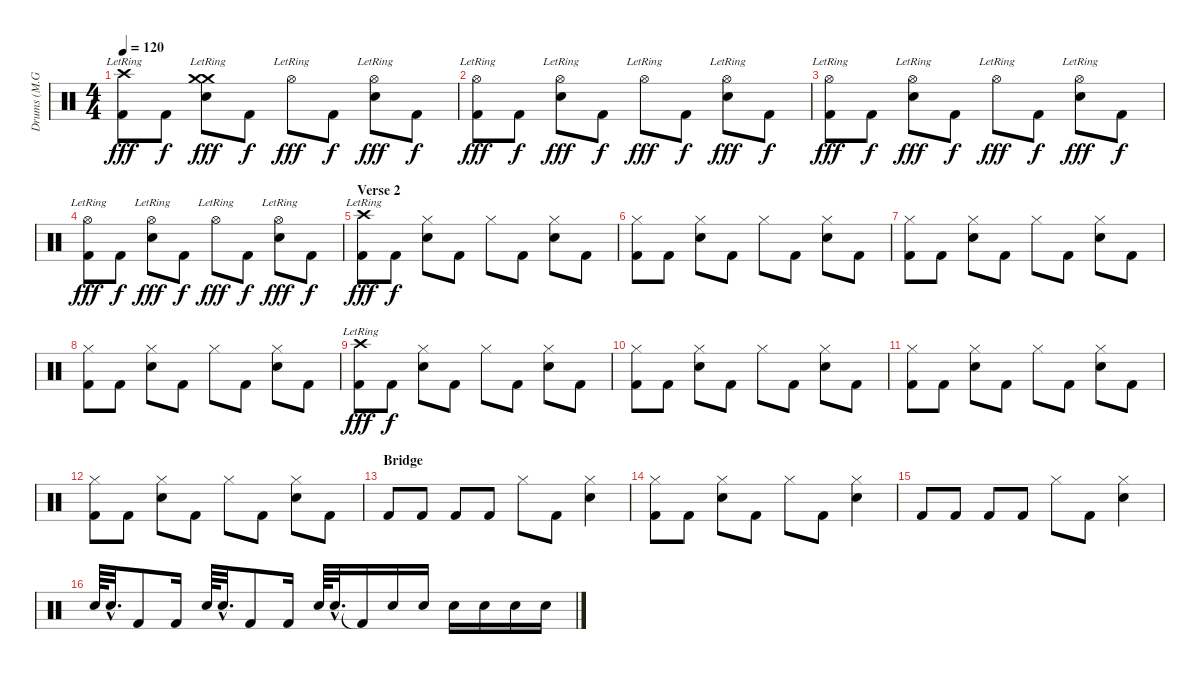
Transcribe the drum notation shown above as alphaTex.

\track ("Drums (M.Grosskopf)" "Drums (M.G") {instrument percussion}
\staff {score}
\articulation defaults
\ts (4 4)
\tempo 120
\clef neutral
\ks c
("Crash high (hit)"{lr} "Kick (hit) 2").8{dy fff} "Kick (hit) 2".8{dy f} ("Crash medium (hit)"{lr} "Crash medium (hit)"{lr} "Electric Snare (hit)").8{dy fff} "Kick (hit) 2".8{dy f} "Hi-Hat (open)"{lr}.8{dy fff} "Kick (hit) 2".8{dy f} ("Hi-Hat (open)"{lr} "Electric Snare (hit)").8{dy fff} "Kick (hit) 2".8{dy f} |
("Hi-Hat (open)"{lr} "Kick (hit) 2").8{dy fff} "Kick (hit) 2".8{dy f} ("Hi-Hat (open)"{lr} "Electric Snare (hit)").8{dy fff} "Kick (hit) 2".8{dy f} "Hi-Hat (open)"{lr}.8{dy fff} "Kick (hit) 2".8{dy f} ("Hi-Hat (open)"{lr} "Electric Snare (hit)").8{dy fff} "Kick (hit) 2".8{dy f} |
("Hi-Hat (open)"{lr} "Kick (hit) 2").8{dy fff} "Kick (hit) 2".8{dy f} ("Hi-Hat (open)"{lr} "Electric Snare (hit)").8{dy fff} "Kick (hit) 2".8{dy f} "Hi-Hat (open)"{lr}.8{dy fff} "Kick (hit) 2".8{dy f} ("Hi-Hat (open)"{lr} "Electric Snare (hit)").8{dy fff} "Kick (hit) 2".8{dy f} |
("Hi-Hat (open)"{lr} "Kick (hit) 2").8{dy fff} "Kick (hit) 2".8{dy f} ("Hi-Hat (open)"{lr} "Electric Snare (hit)").8{dy fff} "Kick (hit) 2".8{dy f} "Hi-Hat (open)"{lr}.8{dy fff} "Kick (hit) 2".8{dy f} ("Hi-Hat (open)"{lr} "Electric Snare (hit)").8{dy fff} "Kick (hit) 2".8{dy f} |
\section ("" "Verse 2")
("Crash high (hit)"{lr} "Kick (hit) 2").8{dy fff} "Kick (hit) 2".8{dy f} ("Hi-Hat (closed)" "Electric Snare (hit)").8 "Kick (hit) 2".8 "Hi-Hat (closed)".8 "Kick (hit) 2".8 ("Hi-Hat (closed)" "Electric Snare (hit)").8 "Kick (hit) 2".8 |
("Hi-Hat (closed)" "Kick (hit) 2").8 "Kick (hit) 2".8 ("Hi-Hat (closed)" "Electric Snare (hit)").8 "Kick (hit) 2".8 "Hi-Hat (closed)".8 "Kick (hit) 2".8 ("Hi-Hat (closed)" "Electric Snare (hit)").8 "Kick (hit) 2".8 |
("Hi-Hat (closed)" "Kick (hit) 2").8 "Kick (hit) 2".8 ("Hi-Hat (closed)" "Electric Snare (hit)").8 "Kick (hit) 2".8 "Hi-Hat (closed)".8 "Kick (hit) 2".8 ("Hi-Hat (closed)" "Electric Snare (hit)").8 "Kick (hit) 2".8 |
("Hi-Hat (closed)" "Kick (hit) 2").8 "Kick (hit) 2".8 ("Hi-Hat (closed)" "Electric Snare (hit)").8 "Kick (hit) 2".8 "Hi-Hat (closed)".8 "Kick (hit) 2".8 ("Hi-Hat (closed)" "Electric Snare (hit)").8 "Kick (hit) 2".8 |
("Crash high (hit)"{lr} "Kick (hit) 2").8{dy fff} "Kick (hit) 2".8{dy f} ("Hi-Hat (closed)" "Electric Snare (hit)").8 "Kick (hit) 2".8 "Hi-Hat (closed)".8 "Kick (hit) 2".8 ("Hi-Hat (closed)" "Electric Snare (hit)").8 "Kick (hit) 2".8 |
("Hi-Hat (closed)" "Kick (hit) 2").8 "Kick (hit) 2".8 ("Hi-Hat (closed)" "Electric Snare (hit)").8 "Kick (hit) 2".8 "Hi-Hat (closed)".8 "Kick (hit) 2".8 ("Hi-Hat (closed)" "Electric Snare (hit)").8 "Kick (hit) 2".8 |
("Hi-Hat (closed)" "Kick (hit) 2").8 "Kick (hit) 2".8 ("Hi-Hat (closed)" "Electric Snare (hit)").8 "Kick (hit) 2".8 "Hi-Hat (closed)".8 "Kick (hit) 2".8 ("Hi-Hat (closed)" "Electric Snare (hit)").8 "Kick (hit) 2".8 |
("Hi-Hat (closed)" "Kick (hit) 2").8 "Kick (hit) 2".8 ("Hi-Hat (closed)" "Electric Snare (hit)").8 "Kick (hit) 2".8 "Hi-Hat (closed)".8 "Kick (hit) 2".8 ("Hi-Hat (closed)" "Electric Snare (hit)").8 "Kick (hit) 2".8 |
\section ("" "Bridge")
"Kick (hit) 2".8 "Kick (hit) 2".8 "Kick (hit) 2".8 "Kick (hit) 2".8 "Hi-Hat (closed)".8 "Kick (hit) 2".8 ("Hi-Hat (closed)" "Electric Snare (hit)").4 |
("Hi-Hat (closed)" "Kick (hit) 2").8 "Kick (hit) 2".8 ("Hi-Hat (closed)" "Electric Snare (hit)").8 "Kick (hit) 2".8 "Hi-Hat (closed)".8 "Kick (hit) 2".8 ("Hi-Hat (closed)" "Electric Snare (hit)").4 |
"Kick (hit) 2".8 "Kick (hit) 2".8 "Kick (hit) 2".8 "Kick (hit) 2".8 "Hi-Hat (closed)".8 "Kick (hit) 2".8 ("Hi-Hat (closed)" "Electric Snare (hit)").4 |
"Electric Snare (hit)".64 "Electric Snare (hit)"{hac}.32{d} "Kick (hit) 2".8 "Kick (hit) 2".16 "Electric Snare (hit)".64 "Electric Snare (hit)"{hac}.32{d} "Kick (hit) 2".8 "Kick (hit) 2".16 "Electric Snare (hit)".64 "Electric Snare (hit)"{hac}.32{d} "Kick (hit) 2"{t}.16 "Electric Snare (hit)".16 "Electric Snare (hit)".16 "Electric Snare (hit)".16 "Electric Snare (hit)".16 "Electric Snare (hit)".16 "Electric Snare (hit)".16
